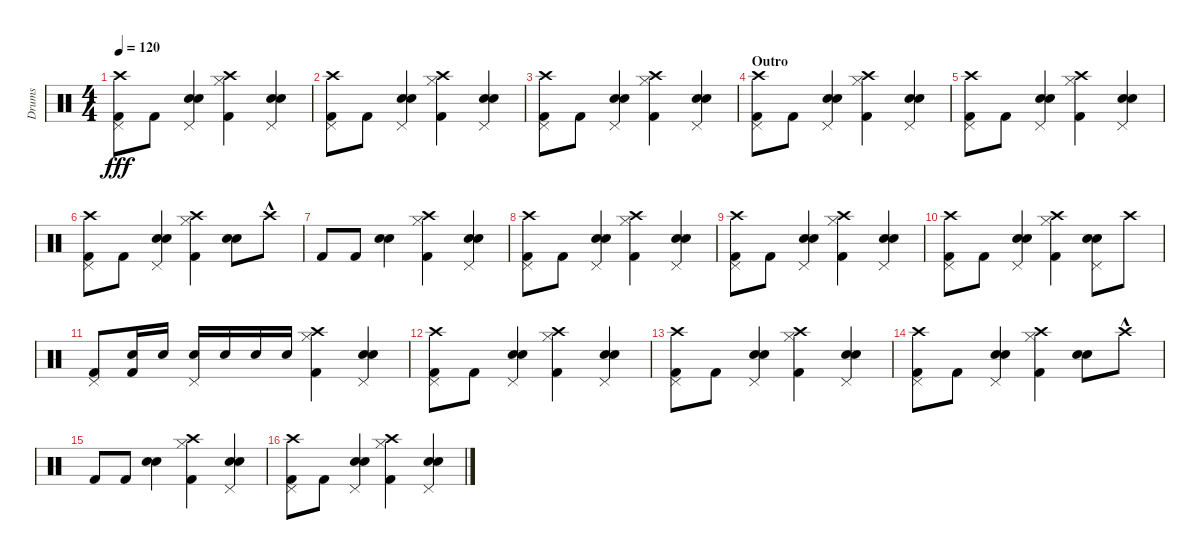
\track ("Drums" "Drums") {instrument percussion}
\staff {score}
\articulation defaults
\ts (4 4)
\tempo 120
\clef neutral
\ks c
("Pedal Hi-Hat (hit)" "Kick (hit) 2" "Crash high (hit)").8{dy fff} "Kick (hit) 2".8 ("Electric Snare (hit)" "Pedal Hi-Hat (hit)" "Snare (hit) 2").4 ("Hi-Hat (closed)" "Kick (hit) 2" "Crash high (hit)").4 ("Electric Snare (hit)" "Pedal Hi-Hat (hit)" "Snare (hit) 2").4 |
("Pedal Hi-Hat (hit)" "Kick (hit) 2" "Crash high (hit)").8 "Kick (hit) 2".8 ("Electric Snare (hit)" "Pedal Hi-Hat (hit)" "Snare (hit) 2").4 ("Hi-Hat (closed)" "Kick (hit) 2" "Crash high (hit)").4 ("Electric Snare (hit)" "Pedal Hi-Hat (hit)" "Snare (hit) 2").4 |
("Pedal Hi-Hat (hit)" "Kick (hit) 2" "Crash high (hit)").8 "Kick (hit) 2".8 ("Electric Snare (hit)" "Pedal Hi-Hat (hit)" "Snare (hit) 2").4 ("Hi-Hat (closed)" "Kick (hit) 2" "Crash high (hit)").4 ("Electric Snare (hit)" "Pedal Hi-Hat (hit)" "Snare (hit) 2").4 |
\section ("" "Outro")
("Pedal Hi-Hat (hit)" "Kick (hit) 2" "Crash high (hit)").8 "Kick (hit) 2".8 ("Electric Snare (hit)" "Pedal Hi-Hat (hit)" "Snare (hit) 2").4 ("Hi-Hat (closed)" "Kick (hit) 2" "Crash high (hit)").4 ("Electric Snare (hit)" "Pedal Hi-Hat (hit)" "Snare (hit) 2").4 |
("Pedal Hi-Hat (hit)" "Kick (hit) 2" "Crash high (hit)").8 "Kick (hit) 2".8 ("Electric Snare (hit)" "Pedal Hi-Hat (hit)" "Snare (hit) 2").4 ("Hi-Hat (closed)" "Kick (hit) 2" "Crash high (hit)").4 ("Electric Snare (hit)" "Pedal Hi-Hat (hit)" "Snare (hit) 2").4 |
("Pedal Hi-Hat (hit)" "Kick (hit) 2" "Crash high (hit)").8 "Kick (hit) 2".8 ("Electric Snare (hit)" "Pedal Hi-Hat (hit)" "Snare (hit) 2").4 ("Hi-Hat (closed)" "Kick (hit) 2" "Crash high (hit)").4 ("Electric Snare (hit)" "Snare (hit) 2").8 "Crash high (hit)"{hac}.8 |
"Kick (hit) 2".8 "Kick (hit) 2".8 ("Electric Snare (hit)" "Snare (hit) 2").4 ("Hi-Hat (closed)" "Kick (hit) 2" "Crash high (hit)").4 ("Electric Snare (hit)" "Pedal Hi-Hat (hit)" "Snare (hit) 2").4 |
("Pedal Hi-Hat (hit)" "Kick (hit) 2" "Crash high (hit)").8 "Kick (hit) 2".8 ("Electric Snare (hit)" "Pedal Hi-Hat (hit)" "Snare (hit) 2").4 ("Hi-Hat (closed)" "Kick (hit) 2" "Crash high (hit)").4 ("Electric Snare (hit)" "Pedal Hi-Hat (hit)" "Snare (hit) 2").4 |
("Pedal Hi-Hat (hit)" "Kick (hit) 2" "Crash high (hit)").8 "Kick (hit) 2".8 ("Electric Snare (hit)" "Pedal Hi-Hat (hit)" "Snare (hit) 2").4 ("Hi-Hat (closed)" "Kick (hit) 2" "Crash high (hit)").4 ("Electric Snare (hit)" "Pedal Hi-Hat (hit)" "Snare (hit) 2").4 |
("Pedal Hi-Hat (hit)" "Kick (hit) 2" "Crash high (hit)").8 "Kick (hit) 2".8 ("Electric Snare (hit)" "Pedal Hi-Hat (hit)" "Snare (hit) 2").4 ("Hi-Hat (closed)" "Kick (hit) 2" "Crash high (hit)").4 ("Electric Snare (hit)" "Pedal Hi-Hat (hit)" "Snare (hit) 2").8 "Crash high (hit)".8 |
("Pedal Hi-Hat (hit)" "Kick (hit) 2").8 ("Kick (hit) 2" "Snare (hit) 2").16 "Snare (hit) 2".16 ("Pedal Hi-Hat (hit)" "Electric Snare (hit)").16 "Electric Snare (hit)".16 "Electric Snare (hit)".16 "Electric Snare (hit)".16 ("Hi-Hat (closed)" "Kick (hit) 2" "Crash high (hit)").4 ("Electric Snare (hit)" "Pedal Hi-Hat (hit)" "Snare (hit) 2").4 |
("Pedal Hi-Hat (hit)" "Kick (hit) 2" "Crash high (hit)").8 "Kick (hit) 2".8 ("Electric Snare (hit)" "Pedal Hi-Hat (hit)" "Snare (hit) 2").4 ("Hi-Hat (closed)" "Kick (hit) 2" "Crash high (hit)").4 ("Electric Snare (hit)" "Pedal Hi-Hat (hit)" "Snare (hit) 2").4 |
("Pedal Hi-Hat (hit)" "Kick (hit) 2" "Crash high (hit)").8 "Kick (hit) 2".8 ("Electric Snare (hit)" "Pedal Hi-Hat (hit)" "Snare (hit) 2").4 ("Hi-Hat (closed)" "Kick (hit) 2" "Crash high (hit)").4 ("Electric Snare (hit)" "Pedal Hi-Hat (hit)" "Snare (hit) 2").4 |
("Pedal Hi-Hat (hit)" "Kick (hit) 2" "Crash high (hit)").8 "Kick (hit) 2".8 ("Electric Snare (hit)" "Pedal Hi-Hat (hit)" "Snare (hit) 2").4 ("Hi-Hat (closed)" "Kick (hit) 2" "Crash high (hit)").4 ("Electric Snare (hit)" "Snare (hit) 2").8 "Crash high (hit)"{hac}.8 |
"Kick (hit) 2".8 "Kick (hit) 2".8 ("Electric Snare (hit)" "Snare (hit) 2").4 ("Hi-Hat (closed)" "Kick (hit) 2" "Crash high (hit)").4 ("Electric Snare (hit)" "Pedal Hi-Hat (hit)" "Snare (hit) 2").4 |
("Pedal Hi-Hat (hit)" "Kick (hit) 2" "Crash high (hit)").8 "Kick (hit) 2".8 ("Electric Snare (hit)" "Pedal Hi-Hat (hit)" "Snare (hit) 2").4 ("Hi-Hat (closed)" "Kick (hit) 2" "Crash high (hit)").4 ("Electric Snare (hit)" "Pedal Hi-Hat (hit)" "Snare (hit) 2").4
